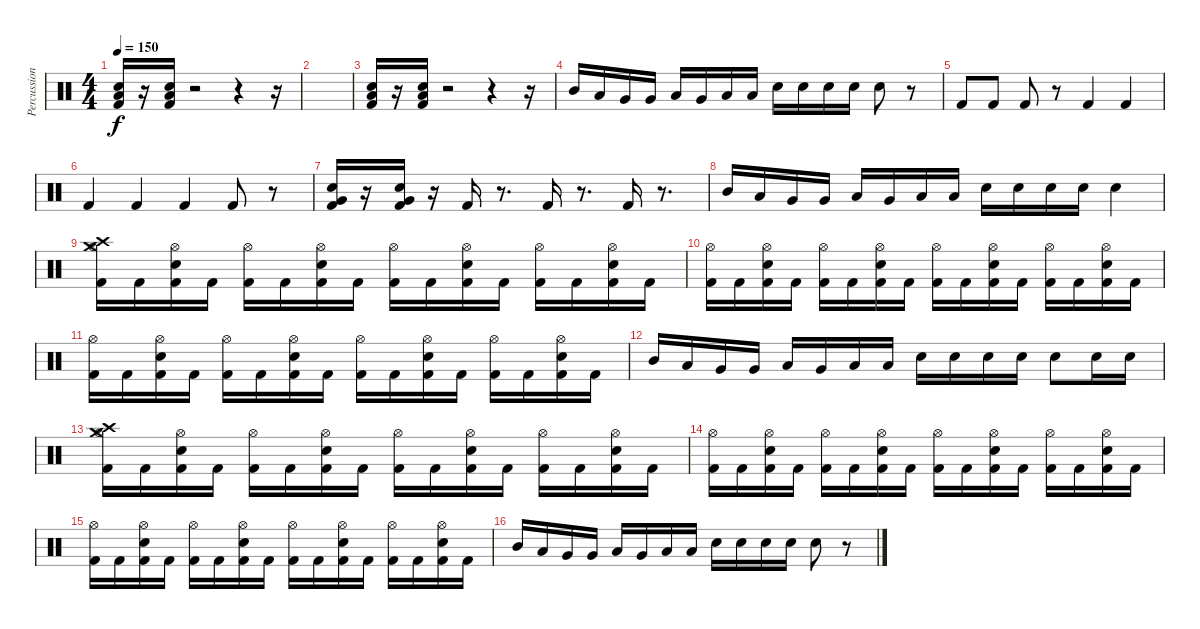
\track ("Percussion" "Percussion") {instrument percussion}
\staff {score}
\articulation defaults
\ts (4 4)
\tempo 150
\clef neutral
\ks c
("Low Tom (hit)" "Electric Snare (hit)" "Kick (hit) 2").16{dy f} r.16 ("Low Tom (hit)" "Electric Snare (hit)" "Kick (hit) 2").16 r.2 r.4 r.16 |
|
("Low Tom (hit)" "Electric Snare (hit)" "Kick (hit) 2").16 r.16 ("Low Tom (hit)" "Electric Snare (hit)" "Kick (hit) 2").16 r.2 r.4 r.16 |
"Mid Tom (hit)".16 "Low Tom (hit)".16 "Very Low Tom (hit)".16 "Very Low Tom (hit)".16 "Low Tom (hit)".16 "Very Low Tom (hit)".16 "Low Floor Tom (hit)".16 "Low Floor Tom (hit)".16 "Electric Snare (hit)".16 "Electric Snare (hit)".16 "Electric Snare (hit)".16 "Electric Snare (hit)".16 "Electric Snare (hit)".8 r.8 |
"Kick (hit) 2".8 "Kick (hit) 2".8 "Kick (hit) 2".8 r.8 "Kick (hit) 2".4 "Kick (hit) 2".4 |
"Kick (hit) 2".4 "Kick (hit) 2".4 "Kick (hit) 2".4 "Kick (hit) 2".8 r.8 |
("Kick (hit) 2" "Electric Snare (hit)" "Very Low Tom (hit)").16 r.16 ("Kick (hit) 2" "Electric Snare (hit)" "Very Low Tom (hit)").16 r.16 "Kick (hit) 2".16 r.8{d} "Kick (hit) 2".16 r.8{d} "Kick (hit) 2".16 r.8{d} |
"Mid Tom (hit)".16 "Low Tom (hit)".16 "Very Low Tom (hit)".16 "Very Low Tom (hit)".16 "Low Tom (hit)".16 "Very Low Tom (hit)".16 "Low Floor Tom (hit)".16 "Low Floor Tom (hit)".16 "Electric Snare (hit)".16 "Electric Snare (hit)".16 "Electric Snare (hit)".16 "Electric Snare (hit)".16 "Electric Snare (hit)".4 |
("Kick (hit) 2" "Hi-Hat (open)" "Crash high (hit)" "Crash medium (hit)").16 "Kick (hit) 2".16 ("Kick (hit) 2" "Hi-Hat (open)" "Electric Snare (hit)").16 "Kick (hit) 2".16 ("Kick (hit) 2" "Hi-Hat (open)").16 "Kick (hit) 2".16 ("Kick (hit) 2" "Hi-Hat (open)" "Electric Snare (hit)").16 "Kick (hit) 2".16 ("Kick (hit) 2" "Hi-Hat (open)").16 "Kick (hit) 2".16 ("Kick (hit) 2" "Hi-Hat (open)" "Electric Snare (hit)").16 "Kick (hit) 2".16 ("Kick (hit) 2" "Hi-Hat (open)").16 "Kick (hit) 2".16 ("Kick (hit) 2" "Hi-Hat (open)" "Electric Snare (hit)").16 "Kick (hit) 2".16 |
("Kick (hit) 2" "Hi-Hat (open)").16 "Kick (hit) 2".16 ("Kick (hit) 2" "Hi-Hat (open)" "Electric Snare (hit)").16 "Kick (hit) 2".16 ("Kick (hit) 2" "Hi-Hat (open)").16 "Kick (hit) 2".16 ("Kick (hit) 2" "Hi-Hat (open)" "Electric Snare (hit)").16 "Kick (hit) 2".16 ("Kick (hit) 2" "Hi-Hat (open)").16 "Kick (hit) 2".16 ("Kick (hit) 2" "Hi-Hat (open)" "Electric Snare (hit)").16 "Kick (hit) 2".16 ("Kick (hit) 2" "Hi-Hat (open)").16 "Kick (hit) 2".16 ("Kick (hit) 2" "Hi-Hat (open)" "Electric Snare (hit)").16 "Kick (hit) 2".16 |
("Kick (hit) 2" "Hi-Hat (open)").16 "Kick (hit) 2".16 ("Kick (hit) 2" "Hi-Hat (open)" "Electric Snare (hit)").16 "Kick (hit) 2".16 ("Kick (hit) 2" "Hi-Hat (open)").16 "Kick (hit) 2".16 ("Kick (hit) 2" "Hi-Hat (open)" "Electric Snare (hit)").16 "Kick (hit) 2".16 ("Kick (hit) 2" "Hi-Hat (open)").16 "Kick (hit) 2".16 ("Kick (hit) 2" "Hi-Hat (open)" "Electric Snare (hit)").16 "Kick (hit) 2".16 ("Kick (hit) 2" "Hi-Hat (open)").16 "Kick (hit) 2".16 ("Kick (hit) 2" "Hi-Hat (open)" "Electric Snare (hit)").16 "Kick (hit) 2".16 |
"Mid Tom (hit)".16 "Low Tom (hit)".16 "Very Low Tom (hit)".16 "Very Low Tom (hit)".16 "Low Tom (hit)".16 "Very Low Tom (hit)".16 "Low Floor Tom (hit)".16 "Low Floor Tom (hit)".16 "Electric Snare (hit)".16 "Electric Snare (hit)".16 "Electric Snare (hit)".16 "Electric Snare (hit)".16 "Electric Snare (hit)".8 "Electric Snare (hit)".16 "Electric Snare (hit)".16 |
("Kick (hit) 2" "Hi-Hat (open)" "Crash high (hit)" "Crash medium (hit)").16 "Kick (hit) 2".16 ("Kick (hit) 2" "Hi-Hat (open)" "Electric Snare (hit)").16 "Kick (hit) 2".16 ("Kick (hit) 2" "Hi-Hat (open)").16 "Kick (hit) 2".16 ("Kick (hit) 2" "Hi-Hat (open)" "Electric Snare (hit)").16 "Kick (hit) 2".16 ("Kick (hit) 2" "Hi-Hat (open)").16 "Kick (hit) 2".16 ("Kick (hit) 2" "Hi-Hat (open)" "Electric Snare (hit)").16 "Kick (hit) 2".16 ("Kick (hit) 2" "Hi-Hat (open)").16 "Kick (hit) 2".16 ("Kick (hit) 2" "Hi-Hat (open)" "Electric Snare (hit)").16 "Kick (hit) 2".16 |
("Kick (hit) 2" "Hi-Hat (open)").16 "Kick (hit) 2".16 ("Kick (hit) 2" "Hi-Hat (open)" "Electric Snare (hit)").16 "Kick (hit) 2".16 ("Kick (hit) 2" "Hi-Hat (open)").16 "Kick (hit) 2".16 ("Kick (hit) 2" "Hi-Hat (open)" "Electric Snare (hit)").16 "Kick (hit) 2".16 ("Kick (hit) 2" "Hi-Hat (open)").16 "Kick (hit) 2".16 ("Kick (hit) 2" "Hi-Hat (open)" "Electric Snare (hit)").16 "Kick (hit) 2".16 ("Kick (hit) 2" "Hi-Hat (open)").16 "Kick (hit) 2".16 ("Kick (hit) 2" "Hi-Hat (open)" "Electric Snare (hit)").16 "Kick (hit) 2".16 |
("Kick (hit) 2" "Hi-Hat (open)").16 "Kick (hit) 2".16 ("Kick (hit) 2" "Hi-Hat (open)" "Electric Snare (hit)").16 "Kick (hit) 2".16 ("Kick (hit) 2" "Hi-Hat (open)").16 "Kick (hit) 2".16 ("Kick (hit) 2" "Hi-Hat (open)" "Electric Snare (hit)").16 "Kick (hit) 2".16 ("Kick (hit) 2" "Hi-Hat (open)").16 "Kick (hit) 2".16 ("Kick (hit) 2" "Hi-Hat (open)" "Electric Snare (hit)").16 "Kick (hit) 2".16 ("Kick (hit) 2" "Hi-Hat (open)").16 "Kick (hit) 2".16 ("Kick (hit) 2" "Hi-Hat (open)" "Electric Snare (hit)").16 "Kick (hit) 2".16 |
"Mid Tom (hit)".16 "Low Tom (hit)".16 "Very Low Tom (hit)".16 "Very Low Tom (hit)".16 "Low Tom (hit)".16 "Very Low Tom (hit)".16 "Low Floor Tom (hit)".16 "Low Floor Tom (hit)".16 "Electric Snare (hit)".16 "Electric Snare (hit)".16 "Electric Snare (hit)".16 "Electric Snare (hit)".16 "Electric Snare (hit)".8 r.8
